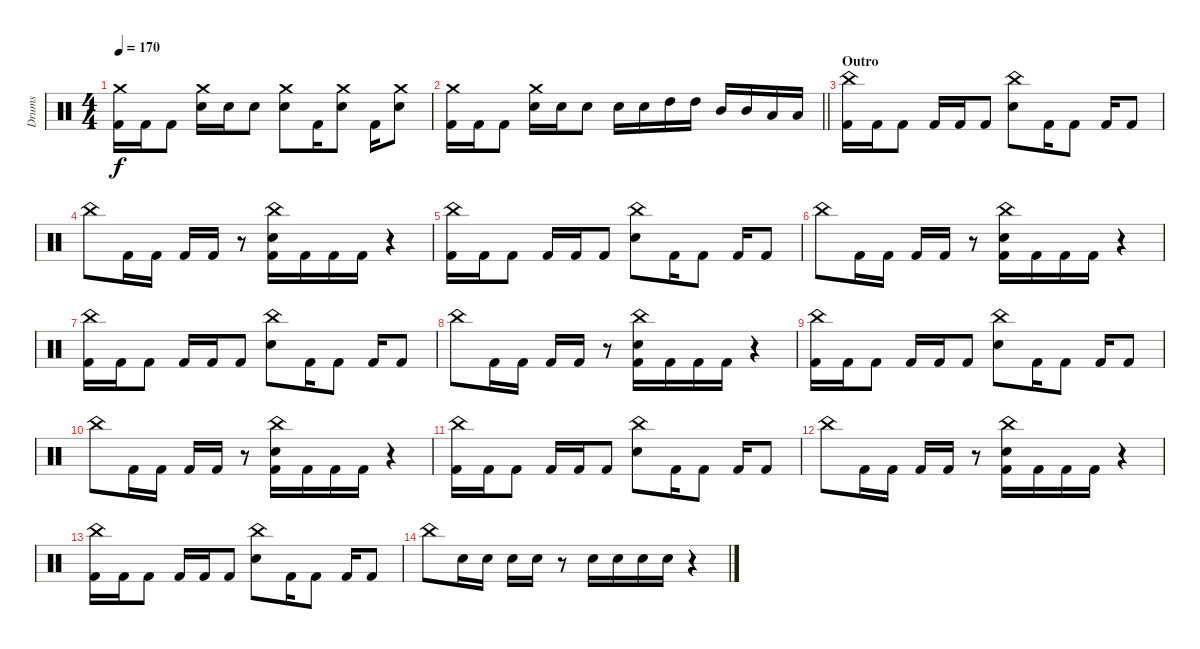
\track ("Drums" "Drums") {instrument percussion}
\staff {score}
\articulation defaults
\ts (4 4)
\tempo 170
\clef neutral
\ks c
("Crash medium (hit)" "Kick (hit) 2").16{dy f} "Kick (hit) 2".16 "Kick (hit) 2".8 ("Crash medium (hit)" "Electric Snare (hit)").16 "Electric Snare (hit)".16 "Electric Snare (hit)".8 ("Crash medium (hit)" "Electric Snare (hit)").8 "Kick (hit) 2".16 ("Crash medium (hit)" "Electric Snare (hit)").8 "Kick (hit) 2".16 ("Crash medium (hit)" "Electric Snare (hit)").8 |
\barLineRight lightlight
("Crash medium (hit)" "Kick (hit) 2").16 "Kick (hit) 2".16 "Kick (hit) 2".8 ("Crash medium (hit)" "Electric Snare (hit)").16 "Electric Snare (hit)".16 "Electric Snare (hit)".8 "Electric Snare (hit)".16 "Electric Snare (hit)".16 "High Tom (hit)".16 "High Tom (hit)".16 "Mid Tom (hit)".16 "Mid Tom (hit)".16 "Low Tom (hit)".16 "Low Tom (hit)".16 |
\section ("" "Outro")
("China (hit)" "Kick (hit) 2").16 "Kick (hit) 2".16 "Kick (hit) 2".8 "Kick (hit) 2".16 "Kick (hit) 2".16 "Kick (hit) 2".8 ("China (hit)" "Electric Snare (hit)").8 "Kick (hit) 2".16 "Kick (hit) 2".8 "Kick (hit) 2".16 "Kick (hit) 2".8 |
"China (hit)".8 "Kick (hit) 2".16 "Kick (hit) 2".16 "Kick (hit) 2".16 "Kick (hit) 2".16 r.8 ("China (hit)" "Electric Snare (hit)" "Kick (hit) 2").16 "Kick (hit) 2".16 "Kick (hit) 2".16 "Kick (hit) 2".16 r.4 |
("China (hit)" "Kick (hit) 2").16 "Kick (hit) 2".16 "Kick (hit) 2".8 "Kick (hit) 2".16 "Kick (hit) 2".16 "Kick (hit) 2".8 ("China (hit)" "Electric Snare (hit)").8 "Kick (hit) 2".16 "Kick (hit) 2".8 "Kick (hit) 2".16 "Kick (hit) 2".8 |
"China (hit)".8 "Kick (hit) 2".16 "Kick (hit) 2".16 "Kick (hit) 2".16 "Kick (hit) 2".16 r.8 ("China (hit)" "Electric Snare (hit)" "Kick (hit) 2").16 "Kick (hit) 2".16 "Kick (hit) 2".16 "Kick (hit) 2".16 r.4 |
("China (hit)" "Kick (hit) 2").16 "Kick (hit) 2".16 "Kick (hit) 2".8 "Kick (hit) 2".16 "Kick (hit) 2".16 "Kick (hit) 2".8 ("China (hit)" "Electric Snare (hit)").8 "Kick (hit) 2".16 "Kick (hit) 2".8 "Kick (hit) 2".16 "Kick (hit) 2".8 |
"China (hit)".8 "Kick (hit) 2".16 "Kick (hit) 2".16 "Kick (hit) 2".16 "Kick (hit) 2".16 r.8 ("China (hit)" "Electric Snare (hit)" "Kick (hit) 2").16 "Kick (hit) 2".16 "Kick (hit) 2".16 "Kick (hit) 2".16 r.4 |
("China (hit)" "Kick (hit) 2").16 "Kick (hit) 2".16 "Kick (hit) 2".8 "Kick (hit) 2".16 "Kick (hit) 2".16 "Kick (hit) 2".8 ("China (hit)" "Electric Snare (hit)").8 "Kick (hit) 2".16 "Kick (hit) 2".8 "Kick (hit) 2".16 "Kick (hit) 2".8 |
"China (hit)".8 "Kick (hit) 2".16 "Kick (hit) 2".16 "Kick (hit) 2".16 "Kick (hit) 2".16 r.8 ("China (hit)" "Electric Snare (hit)" "Kick (hit) 2").16 "Kick (hit) 2".16 "Kick (hit) 2".16 "Kick (hit) 2".16 r.4 |
("China (hit)" "Kick (hit) 2").16 "Kick (hit) 2".16 "Kick (hit) 2".8 "Kick (hit) 2".16 "Kick (hit) 2".16 "Kick (hit) 2".8 ("China (hit)" "Electric Snare (hit)").8 "Kick (hit) 2".16 "Kick (hit) 2".8 "Kick (hit) 2".16 "Kick (hit) 2".8 |
"China (hit)".8 "Kick (hit) 2".16 "Kick (hit) 2".16 "Kick (hit) 2".16 "Kick (hit) 2".16 r.8 ("China (hit)" "Electric Snare (hit)" "Kick (hit) 2").16 "Kick (hit) 2".16 "Kick (hit) 2".16 "Kick (hit) 2".16 r.4 |
("China (hit)" "Kick (hit) 2").16 "Kick (hit) 2".16 "Kick (hit) 2".8 "Kick (hit) 2".16 "Kick (hit) 2".16 "Kick (hit) 2".8 ("China (hit)" "Electric Snare (hit)").8 "Kick (hit) 2".16 "Kick (hit) 2".8 "Kick (hit) 2".16 "Kick (hit) 2".8 |
"China (hit)".8 "Electric Snare (hit)".16 "Electric Snare (hit)".16 "Electric Snare (hit)".16 "Electric Snare (hit)".16 r.8 "Electric Snare (hit)".16 "Electric Snare (hit)".16 "Electric Snare (hit)".16 "Electric Snare (hit)".16 r.4
